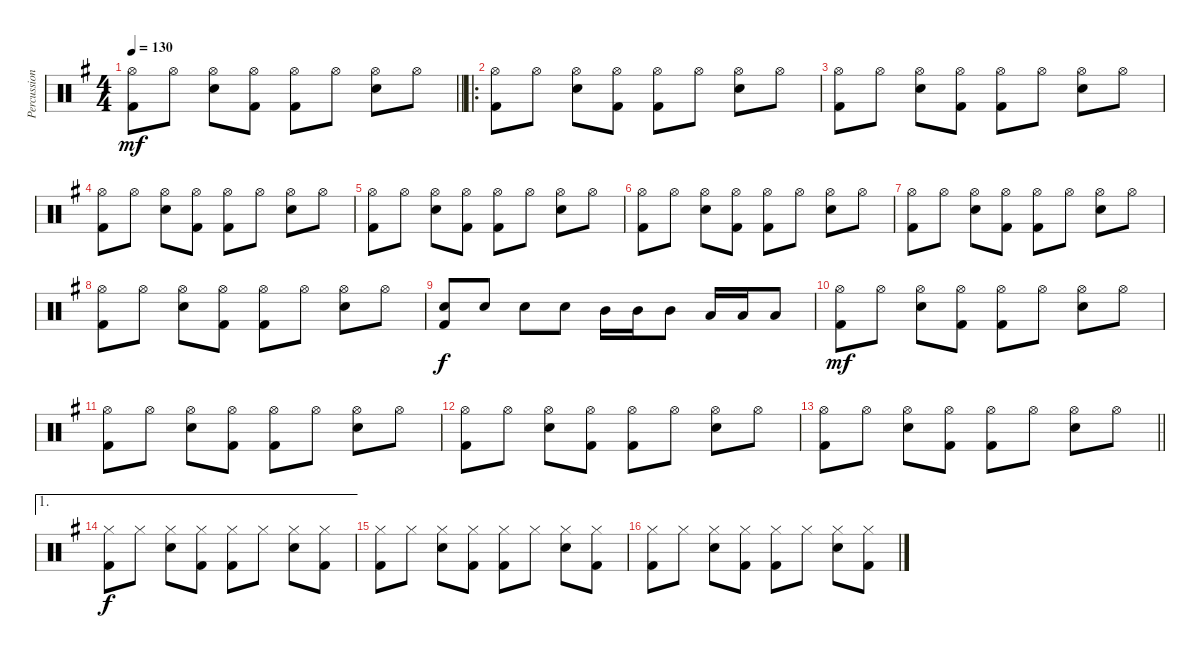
\track ("Percussion" "Percussion") {instrument percussion}
\staff {score}
\articulation defaults
\ts (4 4)
\tempo 130
\clef neutral
\barLineRight lightlight
\ks g
("Hi-Hat (open)" "Kick (hit) 2").8{dy mf} "Hi-Hat (open)".8 ("Hi-Hat (open)" "Snare (hit) 2").8 ("Hi-Hat (open)" "Kick (hit) 2").8 ("Hi-Hat (open)" "Kick (hit) 2").8 "Hi-Hat (open)".8 ("Hi-Hat (open)" "Snare (hit) 2").8 "Hi-Hat (open)".8 |
\ro
("Hi-Hat (open)" "Kick (hit) 2").8 "Hi-Hat (open)".8 ("Hi-Hat (open)" "Snare (hit) 2").8 ("Hi-Hat (open)" "Kick (hit) 2").8 ("Hi-Hat (open)" "Kick (hit) 2").8 "Hi-Hat (open)".8 ("Hi-Hat (open)" "Snare (hit) 2").8 "Hi-Hat (open)".8 |
("Hi-Hat (open)" "Kick (hit) 2").8 "Hi-Hat (open)".8 ("Hi-Hat (open)" "Snare (hit) 2").8 ("Hi-Hat (open)" "Kick (hit) 2").8 ("Hi-Hat (open)" "Kick (hit) 2").8 "Hi-Hat (open)".8 ("Hi-Hat (open)" "Snare (hit) 2").8 "Hi-Hat (open)".8 |
("Hi-Hat (open)" "Kick (hit) 2").8 "Hi-Hat (open)".8 ("Hi-Hat (open)" "Snare (hit) 2").8 ("Hi-Hat (open)" "Kick (hit) 2").8 ("Hi-Hat (open)" "Kick (hit) 2").8 "Hi-Hat (open)".8 ("Hi-Hat (open)" "Snare (hit) 2").8 "Hi-Hat (open)".8 |
("Hi-Hat (open)" "Kick (hit) 2").8 "Hi-Hat (open)".8 ("Hi-Hat (open)" "Snare (hit) 2").8 ("Hi-Hat (open)" "Kick (hit) 2").8 ("Hi-Hat (open)" "Kick (hit) 2").8 "Hi-Hat (open)".8 ("Hi-Hat (open)" "Snare (hit) 2").8 "Hi-Hat (open)".8 |
("Hi-Hat (open)" "Kick (hit) 2").8 "Hi-Hat (open)".8 ("Hi-Hat (open)" "Snare (hit) 2").8 ("Hi-Hat (open)" "Kick (hit) 2").8 ("Hi-Hat (open)" "Kick (hit) 2").8 "Hi-Hat (open)".8 ("Hi-Hat (open)" "Snare (hit) 2").8 "Hi-Hat (open)".8 |
("Hi-Hat (open)" "Kick (hit) 2").8 "Hi-Hat (open)".8 ("Hi-Hat (open)" "Snare (hit) 2").8 ("Hi-Hat (open)" "Kick (hit) 2").8 ("Hi-Hat (open)" "Kick (hit) 2").8 "Hi-Hat (open)".8 ("Hi-Hat (open)" "Snare (hit) 2").8 "Hi-Hat (open)".8 |
("Hi-Hat (open)" "Kick (hit) 2").8 "Hi-Hat (open)".8 ("Hi-Hat (open)" "Snare (hit) 2").8 ("Hi-Hat (open)" "Kick (hit) 2").8 ("Hi-Hat (open)" "Kick (hit) 2").8 "Hi-Hat (open)".8 ("Hi-Hat (open)" "Snare (hit) 2").8 "Hi-Hat (open)".8 |
("Snare (hit) 2" "Kick (hit) 2").8{dy f} "Snare (hit) 2".8 "Snare (hit) 2".8 "Snare (hit) 2".8 "Mid Tom (hit)".16 "Mid Tom (hit)".16 "Mid Tom (hit)".8 "Low Tom (hit)".16 "Low Tom (hit)".16 "Low Tom (hit)".8 |
("Hi-Hat (open)" "Kick (hit) 2").8{dy mf} "Hi-Hat (open)".8 ("Hi-Hat (open)" "Snare (hit) 2").8 ("Hi-Hat (open)" "Kick (hit) 2").8 ("Hi-Hat (open)" "Kick (hit) 2").8 "Hi-Hat (open)".8 ("Hi-Hat (open)" "Snare (hit) 2").8 "Hi-Hat (open)".8 |
("Hi-Hat (open)" "Kick (hit) 2").8 "Hi-Hat (open)".8 ("Hi-Hat (open)" "Snare (hit) 2").8 ("Hi-Hat (open)" "Kick (hit) 2").8 ("Hi-Hat (open)" "Kick (hit) 2").8 "Hi-Hat (open)".8 ("Hi-Hat (open)" "Snare (hit) 2").8 "Hi-Hat (open)".8 |
("Hi-Hat (open)" "Kick (hit) 2").8 "Hi-Hat (open)".8 ("Hi-Hat (open)" "Snare (hit) 2").8 ("Hi-Hat (open)" "Kick (hit) 2").8 ("Hi-Hat (open)" "Kick (hit) 2").8 "Hi-Hat (open)".8 ("Hi-Hat (open)" "Snare (hit) 2").8 "Hi-Hat (open)".8 |
\barLineRight lightlight
("Hi-Hat (open)" "Kick (hit) 2").8 "Hi-Hat (open)".8 ("Hi-Hat (open)" "Snare (hit) 2").8 ("Hi-Hat (open)" "Kick (hit) 2").8 ("Hi-Hat (open)" "Kick (hit) 2").8 "Hi-Hat (open)".8 ("Hi-Hat (open)" "Snare (hit) 2").8 "Hi-Hat (open)".8 |
\ae 1
("Hi-Hat (closed)" "Kick (hit) 2").8{dy f} "Hi-Hat (closed)".8 ("Hi-Hat (closed)" "Snare (hit) 2").8 ("Hi-Hat (closed)" "Kick (hit) 2").8 ("Hi-Hat (closed)" "Kick (hit) 2").8 "Hi-Hat (closed)".8 ("Hi-Hat (closed)" "Snare (hit) 2").8 ("Hi-Hat (closed)" "Kick (hit) 2").8 |
("Hi-Hat (closed)" "Kick (hit) 2").8 "Hi-Hat (closed)".8 ("Hi-Hat (closed)" "Snare (hit) 2").8 ("Hi-Hat (closed)" "Kick (hit) 2").8 ("Hi-Hat (closed)" "Kick (hit) 2").8 "Hi-Hat (closed)".8 ("Hi-Hat (closed)" "Snare (hit) 2").8 ("Hi-Hat (closed)" "Kick (hit) 2").8 |
("Hi-Hat (closed)" "Kick (hit) 2").8 "Hi-Hat (closed)".8 ("Hi-Hat (closed)" "Snare (hit) 2").8 ("Hi-Hat (closed)" "Kick (hit) 2").8 ("Hi-Hat (closed)" "Kick (hit) 2").8 "Hi-Hat (closed)".8 ("Hi-Hat (closed)" "Snare (hit) 2").8 ("Hi-Hat (closed)" "Kick (hit) 2").8
